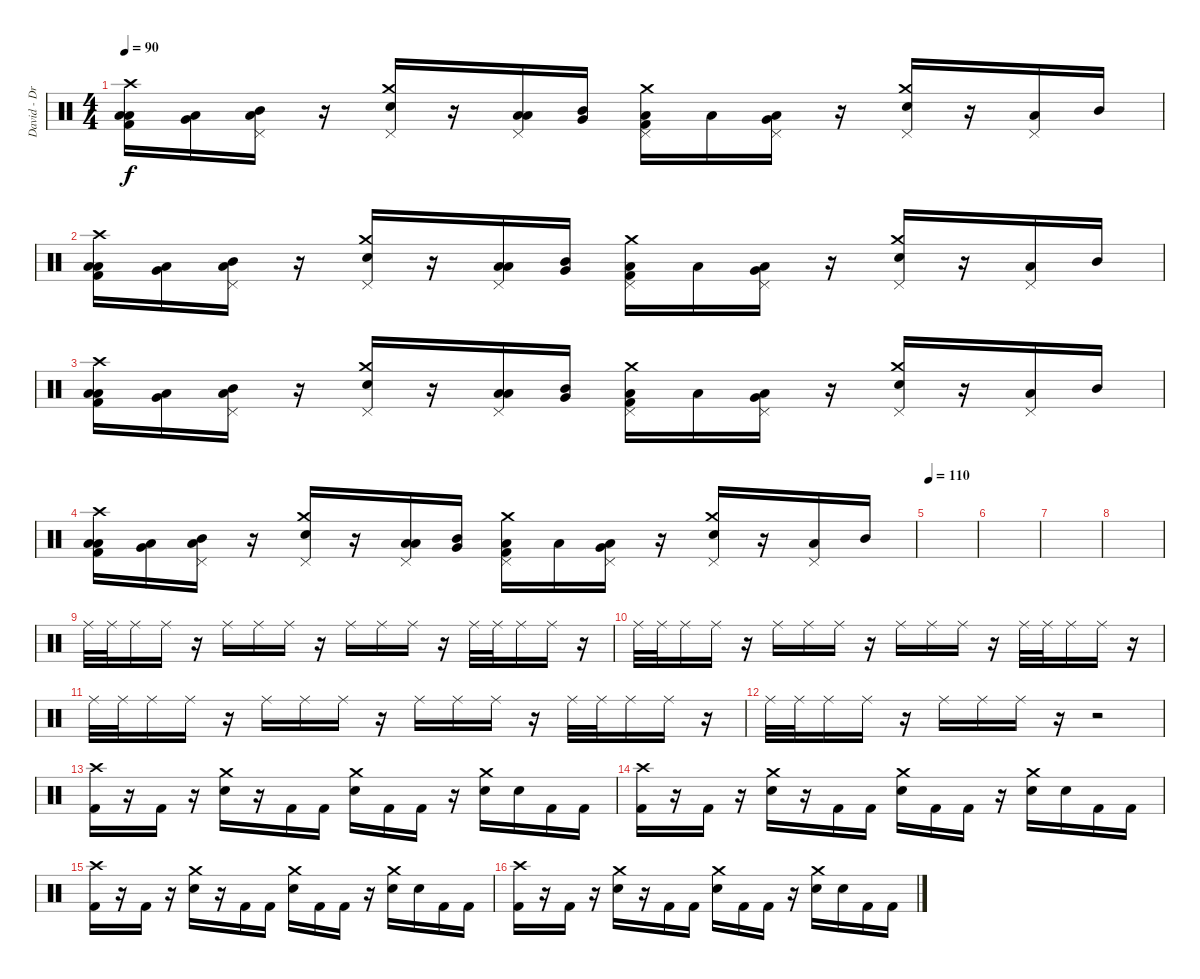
\track ("David - Drums" "David - Dr") {instrument percussion}
\staff {score}
\articulation defaults
\ts (4 4)
\tempo 90
\clef neutral
\ks c
("Crash high (hit)" "Low Tom (hit)" "Low Floor Tom (hit)" "Kick (hit) 2").16{dy f} ("Very Low Tom (hit)" "Low Floor Tom (hit)").16 ("Pedal Hi-Hat (hit)" "Mid Tom (hit)" "Low Tom (hit)").16 r.16 ("Pedal Hi-Hat (hit)" "Crash medium (hit)" "Electric Snare (hit)").16 r.16 ("Pedal Hi-Hat (hit)" "Low Tom (hit)" "Low Floor Tom (hit)").16 ("Very Low Tom (hit)" "Mid Tom (hit)").16 ("Pedal Hi-Hat (hit)" "Crash medium (hit)" "Low Tom (hit)" "Kick (hit) 2").16 "Low Tom (hit)".16 ("Pedal Hi-Hat (hit)" "Very Low Tom (hit)" "Low Floor Tom (hit)").16 r.16 ("Pedal Hi-Hat (hit)" "Crash medium (hit)" "Electric Snare (hit)").16 r.16 ("Pedal Hi-Hat (hit)" "Low Tom (hit)").16 "Mid Tom (hit)".16 |
("Crash high (hit)" "Low Tom (hit)" "Low Floor Tom (hit)" "Kick (hit) 2").16 ("Very Low Tom (hit)" "Low Floor Tom (hit)").16 ("Pedal Hi-Hat (hit)" "Mid Tom (hit)" "Low Tom (hit)").16 r.16 ("Pedal Hi-Hat (hit)" "Crash medium (hit)" "Electric Snare (hit)").16 r.16 ("Pedal Hi-Hat (hit)" "Low Tom (hit)" "Low Floor Tom (hit)").16 ("Very Low Tom (hit)" "Mid Tom (hit)").16 ("Pedal Hi-Hat (hit)" "Crash medium (hit)" "Low Tom (hit)" "Kick (hit) 2").16 "Low Tom (hit)".16 ("Pedal Hi-Hat (hit)" "Very Low Tom (hit)" "Low Floor Tom (hit)").16 r.16 ("Pedal Hi-Hat (hit)" "Crash medium (hit)" "Electric Snare (hit)").16 r.16 ("Pedal Hi-Hat (hit)" "Low Tom (hit)").16 "Mid Tom (hit)".16 |
("Crash high (hit)" "Low Tom (hit)" "Low Floor Tom (hit)" "Kick (hit) 2").16 ("Very Low Tom (hit)" "Low Floor Tom (hit)").16 ("Pedal Hi-Hat (hit)" "Mid Tom (hit)" "Low Tom (hit)").16 r.16 ("Pedal Hi-Hat (hit)" "Crash medium (hit)" "Electric Snare (hit)").16 r.16 ("Pedal Hi-Hat (hit)" "Low Tom (hit)" "Low Floor Tom (hit)").16 ("Very Low Tom (hit)" "Mid Tom (hit)").16 ("Pedal Hi-Hat (hit)" "Crash medium (hit)" "Low Tom (hit)" "Kick (hit) 2").16 "Low Tom (hit)".16 ("Pedal Hi-Hat (hit)" "Very Low Tom (hit)" "Low Floor Tom (hit)").16 r.16 ("Pedal Hi-Hat (hit)" "Crash medium (hit)" "Electric Snare (hit)").16 r.16 ("Pedal Hi-Hat (hit)" "Low Tom (hit)").16 "Mid Tom (hit)".16 |
("Crash high (hit)" "Low Tom (hit)" "Low Floor Tom (hit)" "Kick (hit) 2").16 ("Very Low Tom (hit)" "Low Floor Tom (hit)").16 ("Pedal Hi-Hat (hit)" "Mid Tom (hit)" "Low Tom (hit)").16 r.16 ("Pedal Hi-Hat (hit)" "Crash medium (hit)" "Electric Snare (hit)").16 r.16 ("Pedal Hi-Hat (hit)" "Low Tom (hit)" "Low Floor Tom (hit)").16 ("Very Low Tom (hit)" "Mid Tom (hit)").16 ("Pedal Hi-Hat (hit)" "Crash medium (hit)" "Low Tom (hit)" "Kick (hit) 2").16 "Low Tom (hit)".16 ("Pedal Hi-Hat (hit)" "Very Low Tom (hit)" "Low Floor Tom (hit)").16 r.16 ("Pedal Hi-Hat (hit)" "Crash medium (hit)" "Electric Snare (hit)").16 r.16 ("Pedal Hi-Hat (hit)" "Low Tom (hit)").16 "Mid Tom (hit)".16 |
\tempo 110
|
|
|
|
"Ride (middle)".32 "Ride (middle)".32 "Ride (middle)".16 "Ride (middle)".16 r.16 "Ride (middle)".16 "Ride (middle)".16 "Ride (middle)".16 r.16 "Ride (middle)".16 "Ride (middle)".16 "Ride (middle)".16 r.16 "Ride (middle)".32 "Ride (middle)".32 "Ride (middle)".16 "Ride (middle)".16 r.16 |
"Ride (middle)".32 "Ride (middle)".32 "Ride (middle)".16 "Ride (middle)".16 r.16 "Ride (middle)".16 "Ride (middle)".16 "Ride (middle)".16 r.16 "Ride (middle)".16 "Ride (middle)".16 "Ride (middle)".16 r.16 "Ride (middle)".32 "Ride (middle)".32 "Ride (middle)".16 "Ride (middle)".16 r.16 |
"Ride (middle)".32 "Ride (middle)".32 "Ride (middle)".16 "Ride (middle)".16 r.16 "Ride (middle)".16 "Ride (middle)".16 "Ride (middle)".16 r.16 "Ride (middle)".16 "Ride (middle)".16 "Ride (middle)".16 r.16 "Ride (middle)".32 "Ride (middle)".32 "Ride (middle)".16 "Ride (middle)".16 r.16 |
"Ride (middle)".32 "Ride (middle)".32 "Ride (middle)".16 "Ride (middle)".16 r.16 "Ride (middle)".16 "Ride (middle)".16 "Ride (middle)".16 r.16 r.2 |
("Crash high (hit)" "Kick (hit) 2").16 r.16 "Kick (hit) 2".16 r.16 ("Crash medium (hit)" "Electric Snare (hit)").16 r.16 "Kick (hit) 2".16 "Kick (hit) 2".16 ("Crash medium (hit)" "Electric Snare (hit)").16 "Kick (hit) 2".16 "Kick (hit) 2".16 r.16 ("Crash medium (hit)" "Electric Snare (hit)").16 "Electric Snare (hit)".16 "Kick (hit) 2".16 "Kick (hit) 2".16 |
("Crash high (hit)" "Kick (hit) 2").16 r.16 "Kick (hit) 2".16 r.16 ("Crash medium (hit)" "Electric Snare (hit)").16 r.16 "Kick (hit) 2".16 "Kick (hit) 2".16 ("Crash medium (hit)" "Electric Snare (hit)").16 "Kick (hit) 2".16 "Kick (hit) 2".16 r.16 ("Crash medium (hit)" "Electric Snare (hit)").16 "Electric Snare (hit)".16 "Kick (hit) 2".16 "Kick (hit) 2".16 |
("Crash high (hit)" "Kick (hit) 2").16 r.16 "Kick (hit) 2".16 r.16 ("Crash medium (hit)" "Electric Snare (hit)").16 r.16 "Kick (hit) 2".16 "Kick (hit) 2".16 ("Crash medium (hit)" "Electric Snare (hit)").16 "Kick (hit) 2".16 "Kick (hit) 2".16 r.16 ("Crash medium (hit)" "Electric Snare (hit)").16 "Electric Snare (hit)".16 "Kick (hit) 2".16 "Kick (hit) 2".16 |
("Crash high (hit)" "Kick (hit) 2").16 r.16 "Kick (hit) 2".16 r.16 ("Crash medium (hit)" "Electric Snare (hit)").16 r.16 "Kick (hit) 2".16 "Kick (hit) 2".16 ("Crash medium (hit)" "Electric Snare (hit)").16 "Kick (hit) 2".16 "Kick (hit) 2".16 r.16 ("Crash medium (hit)" "Electric Snare (hit)").16 "Electric Snare (hit)".16 "Kick (hit) 2".16 "Kick (hit) 2".16
